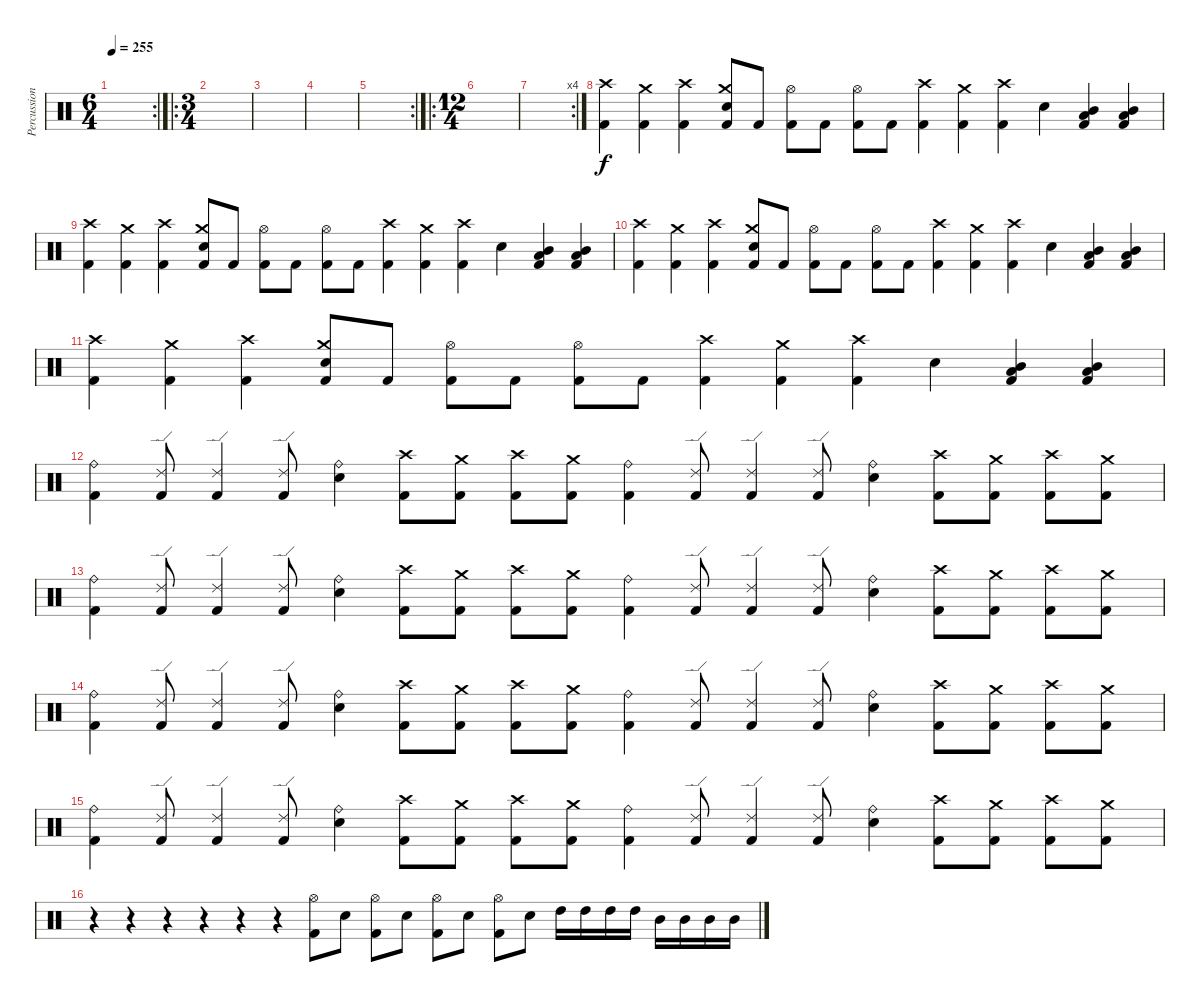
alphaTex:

\track ("Percussion" "Percussion") {mute instrument percussion}
\staff {score}
\articulation defaults
\rc 2
\ts (6 4)
\tempo 255
\clef neutral
\ks c
|
\ro
\ts (3 4)
|
|
|
\rc 2
|
\ro
\ts (12 4)
|
\rc 4
|
("Kick (hit) 2" "Crash high (hit)").4 ("Kick (hit) 2" "Crash medium (hit)").4 ("Kick (hit) 2" "Crash high (hit)").4 ("Kick (hit) 2" "Electric Snare (hit)" "Crash medium (hit)").8 "Kick (hit) 2".8 ("Kick (hit) 2" "Hi-Hat (open)").8 "Kick (hit) 2".8 ("Kick (hit) 2" "Hi-Hat (open)").8 "Kick (hit) 2".8 ("Kick (hit) 2" "Crash high (hit)").4 ("Kick (hit) 2" "Crash medium (hit)").4 ("Kick (hit) 2" "Crash high (hit)").4 "Electric Snare (hit)".4 ("Kick (hit) 2" "Low Tom (hit)" "Mid Tom (hit)").4 ("Kick (hit) 2" "Low Tom (hit)" "Mid Tom (hit)").4 |
("Kick (hit) 2" "Crash high (hit)").4 ("Kick (hit) 2" "Crash medium (hit)").4 ("Kick (hit) 2" "Crash high (hit)").4 ("Kick (hit) 2" "Electric Snare (hit)" "Crash medium (hit)").8 "Kick (hit) 2".8 ("Kick (hit) 2" "Hi-Hat (open)").8 "Kick (hit) 2".8 ("Kick (hit) 2" "Hi-Hat (open)").8 "Kick (hit) 2".8 ("Kick (hit) 2" "Crash high (hit)").4 ("Kick (hit) 2" "Crash medium (hit)").4 ("Kick (hit) 2" "Crash high (hit)").4 "Electric Snare (hit)".4 ("Kick (hit) 2" "Low Tom (hit)" "Mid Tom (hit)").4 ("Kick (hit) 2" "Low Tom (hit)" "Mid Tom (hit)").4 |
("Kick (hit) 2" "Crash high (hit)").4 ("Kick (hit) 2" "Crash medium (hit)").4 ("Kick (hit) 2" "Crash high (hit)").4 ("Kick (hit) 2" "Electric Snare (hit)" "Crash medium (hit)").8 "Kick (hit) 2".8 ("Kick (hit) 2" "Hi-Hat (open)").8 "Kick (hit) 2".8 ("Kick (hit) 2" "Hi-Hat (open)").8 "Kick (hit) 2".8 ("Kick (hit) 2" "Crash high (hit)").4 ("Kick (hit) 2" "Crash medium (hit)").4 ("Kick (hit) 2" "Crash high (hit)").4 "Electric Snare (hit)".4 ("Kick (hit) 2" "Low Tom (hit)" "Mid Tom (hit)").4 ("Kick (hit) 2" "Low Tom (hit)" "Mid Tom (hit)").4 |
("Kick (hit) 2" "Crash high (hit)").4 ("Kick (hit) 2" "Crash medium (hit)").4 ("Kick (hit) 2" "Crash high (hit)").4 ("Kick (hit) 2" "Electric Snare (hit)" "Crash medium (hit)").8 "Kick (hit) 2".8 ("Kick (hit) 2" "Hi-Hat (open)").8 "Kick (hit) 2".8 ("Kick (hit) 2" "Hi-Hat (open)").8 "Kick (hit) 2".8 ("Kick (hit) 2" "Crash high (hit)").4 ("Kick (hit) 2" "Crash medium (hit)").4 ("Kick (hit) 2" "Crash high (hit)").4 "Electric Snare (hit)".4 ("Kick (hit) 2" "Low Tom (hit)" "Mid Tom (hit)").4 ("Kick (hit) 2" "Low Tom (hit)" "Mid Tom (hit)").4 |
("Kick (hit) 2" "Ride (bell)").4 ("Kick (hit) 2" "Ride (edge) 2").8 ("Kick (hit) 2" "Ride (edge) 2").4 ("Kick (hit) 2" "Ride (edge) 2").8 ("Electric Snare (hit)" "Ride (bell)").4 ("Kick (hit) 2" "Crash high (hit)").8 ("Kick (hit) 2" "Crash medium (hit)").8 ("Kick (hit) 2" "Crash high (hit)").8 ("Kick (hit) 2" "Crash medium (hit)").8 ("Kick (hit) 2" "Ride (bell)").4 ("Kick (hit) 2" "Ride (edge) 2").8 ("Kick (hit) 2" "Ride (edge) 2").4 ("Kick (hit) 2" "Ride (edge) 2").8 ("Electric Snare (hit)" "Ride (bell)").4 ("Kick (hit) 2" "Crash high (hit)").8 ("Kick (hit) 2" "Crash medium (hit)").8 ("Kick (hit) 2" "Crash high (hit)").8 ("Kick (hit) 2" "Crash medium (hit)").8 |
("Kick (hit) 2" "Ride (bell)").4 ("Kick (hit) 2" "Ride (edge) 2").8 ("Kick (hit) 2" "Ride (edge) 2").4 ("Kick (hit) 2" "Ride (edge) 2").8 ("Electric Snare (hit)" "Ride (bell)").4 ("Kick (hit) 2" "Crash high (hit)").8 ("Kick (hit) 2" "Crash medium (hit)").8 ("Kick (hit) 2" "Crash high (hit)").8 ("Kick (hit) 2" "Crash medium (hit)").8 ("Kick (hit) 2" "Ride (bell)").4 ("Kick (hit) 2" "Ride (edge) 2").8 ("Kick (hit) 2" "Ride (edge) 2").4 ("Kick (hit) 2" "Ride (edge) 2").8 ("Electric Snare (hit)" "Ride (bell)").4 ("Kick (hit) 2" "Crash high (hit)").8 ("Kick (hit) 2" "Crash medium (hit)").8 ("Kick (hit) 2" "Crash high (hit)").8 ("Kick (hit) 2" "Crash medium (hit)").8 |
("Kick (hit) 2" "Ride (bell)").4 ("Kick (hit) 2" "Ride (edge) 2").8 ("Kick (hit) 2" "Ride (edge) 2").4 ("Kick (hit) 2" "Ride (edge) 2").8 ("Electric Snare (hit)" "Ride (bell)").4 ("Kick (hit) 2" "Crash high (hit)").8 ("Kick (hit) 2" "Crash medium (hit)").8 ("Kick (hit) 2" "Crash high (hit)").8 ("Kick (hit) 2" "Crash medium (hit)").8 ("Kick (hit) 2" "Ride (bell)").4 ("Kick (hit) 2" "Ride (edge) 2").8 ("Kick (hit) 2" "Ride (edge) 2").4 ("Kick (hit) 2" "Ride (edge) 2").8 ("Electric Snare (hit)" "Ride (bell)").4 ("Kick (hit) 2" "Crash high (hit)").8 ("Kick (hit) 2" "Crash medium (hit)").8 ("Kick (hit) 2" "Crash high (hit)").8 ("Kick (hit) 2" "Crash medium (hit)").8 |
("Kick (hit) 2" "Ride (bell)").4 ("Kick (hit) 2" "Ride (edge) 2").8 ("Kick (hit) 2" "Ride (edge) 2").4 ("Kick (hit) 2" "Ride (edge) 2").8 ("Electric Snare (hit)" "Ride (bell)").4 ("Kick (hit) 2" "Crash high (hit)").8 ("Kick (hit) 2" "Crash medium (hit)").8 ("Kick (hit) 2" "Crash high (hit)").8 ("Kick (hit) 2" "Crash medium (hit)").8 ("Kick (hit) 2" "Ride (bell)").4 ("Kick (hit) 2" "Ride (edge) 2").8 ("Kick (hit) 2" "Ride (edge) 2").4 ("Kick (hit) 2" "Ride (edge) 2").8 ("Electric Snare (hit)" "Ride (bell)").4 ("Kick (hit) 2" "Crash high (hit)").8 ("Kick (hit) 2" "Crash medium (hit)").8 ("Kick (hit) 2" "Crash high (hit)").8 ("Kick (hit) 2" "Crash medium (hit)").8 |
r.4 r.4 r.4 r.4 r.4 r.4 ("Kick (hit) 2" "Hi-Hat (open)").8 "Electric Snare (hit)".8 ("Kick (hit) 2" "Hi-Hat (open)").8 "Electric Snare (hit)".8 ("Kick (hit) 2" "Hi-Hat (open)").8 "Electric Snare (hit)".8 ("Kick (hit) 2" "Hi-Hat (open)").8 "Electric Snare (hit)".8 "High Tom (hit)".16 "High Tom (hit)".16 "High Tom (hit)".16 "High Tom (hit)".16 "Mid Tom (hit)".16 "Mid Tom (hit)".16 "Mid Tom (hit)".16 "Mid Tom (hit)".16
